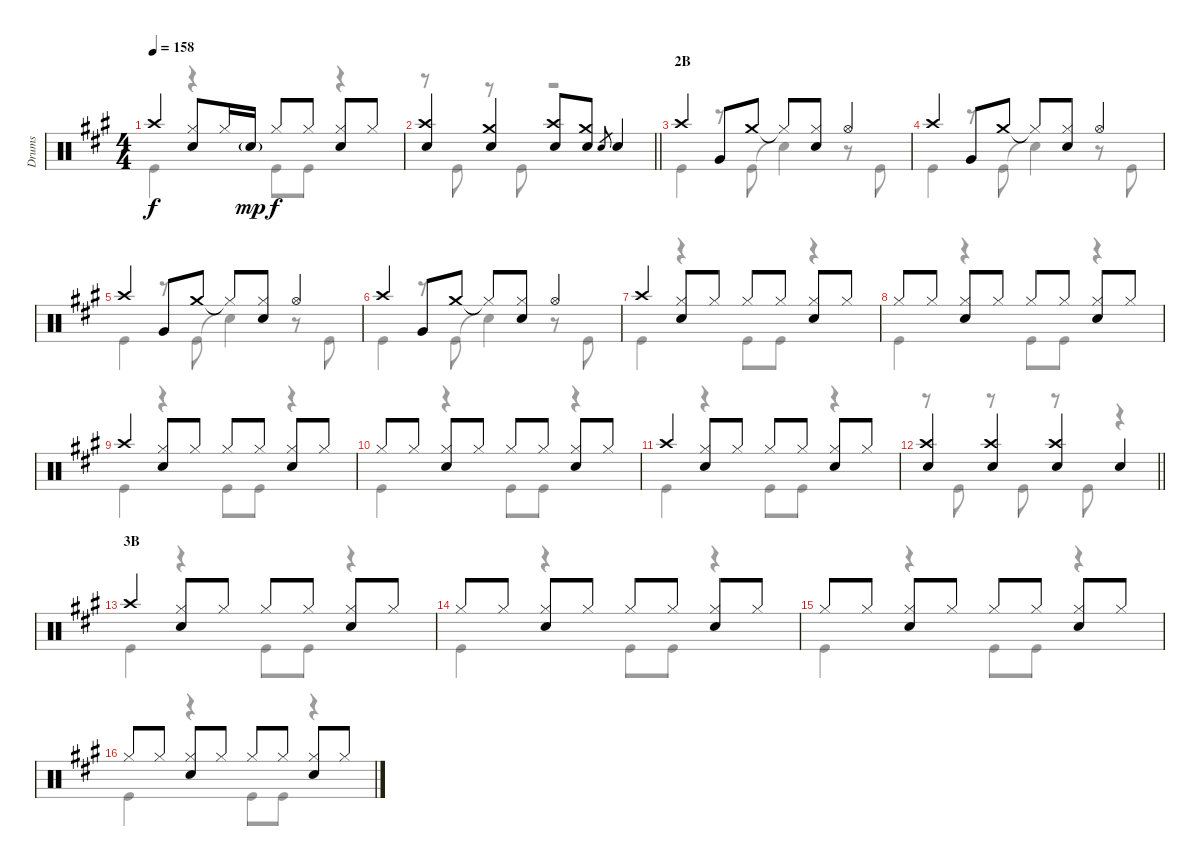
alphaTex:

\track ("Drums" "Drums") {instrument percussion}
\staff {score}
\articulation defaults
\voice
\ts (4 4)
\tempo 158
\clef neutral
\ks a "Crash high (hit)".4{dy f}
("Hi-Hat (closed)" "Snare (hit) 2").8 "Hi-Hat (closed)".16 "Snare (hit) 2"{g}.16{dy mp} "Hi-Hat (closed)".8{dy f} "Hi-Hat (closed)".8 ("Hi-Hat (closed)" "Snare (hit) 2").8 "Hi-Hat (closed)".8 |
\barLineRight lightlight
("Crash high (hit)" "Snare (hit) 2").4 ("Crash medium (hit)" "Snare (hit) 2").4 ("Crash high (hit)" "Snare (hit) 2").8 ("Crash medium (hit)" "Snare (hit) 2").8 "Snare (hit) 2".8{gr} "Snare (hit) 2".4 |
\section ("" "2B")
"Crash high (hit)".4 "Very Low Tom (hit)".8 "Crash medium (hit)".8 "Hi-Hat (closed)"{t}.8 ("Hi-Hat (closed)" "Snare (hit) 2").8 "Hi-Hat (open)".4 |
"Crash high (hit)".4 "Very Low Tom (hit)".8 "Crash medium (hit)".8 "Hi-Hat (closed)"{t}.8 ("Hi-Hat (closed)" "Snare (hit) 2").8 "Hi-Hat (open)".4 |
"Crash high (hit)".4 "Very Low Tom (hit)".8 "Crash medium (hit)".8 "Hi-Hat (closed)"{t}.8 ("Hi-Hat (closed)" "Snare (hit) 2").8 "Hi-Hat (open)".4 |
"Crash high (hit)".4 "Very Low Tom (hit)".8 "Crash medium (hit)".8 "Hi-Hat (closed)"{t}.8 ("Hi-Hat (closed)" "Snare (hit) 2").8 "Hi-Hat (open)".4 |
"Crash high (hit)".4 ("Hi-Hat (closed)" "Snare (hit) 2").8 "Hi-Hat (closed)".8 "Hi-Hat (closed)".8 "Hi-Hat (closed)".8 ("Hi-Hat (closed)" "Snare (hit) 2").8 "Hi-Hat (closed)".8 |
"Hi-Hat (closed)".8 "Hi-Hat (closed)".8 ("Hi-Hat (closed)" "Snare (hit) 2").8 "Hi-Hat (closed)".8 "Hi-Hat (closed)".8 "Hi-Hat (closed)".8 ("Hi-Hat (closed)" "Snare (hit) 2").8 "Hi-Hat (closed)".8 |
"Crash high (hit)".4 ("Hi-Hat (closed)" "Snare (hit) 2").8 "Hi-Hat (closed)".8 "Hi-Hat (closed)".8 "Hi-Hat (closed)".8 ("Hi-Hat (closed)" "Snare (hit) 2").8 "Hi-Hat (closed)".8 |
"Hi-Hat (closed)".8 "Hi-Hat (closed)".8 ("Hi-Hat (closed)" "Snare (hit) 2").8 "Hi-Hat (closed)".8 "Hi-Hat (closed)".8 "Hi-Hat (closed)".8 ("Hi-Hat (closed)" "Snare (hit) 2").8 "Hi-Hat (closed)".8 |
"Crash high (hit)".4 ("Hi-Hat (closed)" "Snare (hit) 2").8 "Hi-Hat (closed)".8 "Hi-Hat (closed)".8 "Hi-Hat (closed)".8 ("Hi-Hat (closed)" "Snare (hit) 2").8 "Hi-Hat (closed)".8 |
\barLineRight lightlight
("Crash high (hit)" "Snare (hit) 2").4 ("Crash high (hit)" "Snare (hit) 2").4 ("Crash high (hit)" "Snare (hit) 2").4 "Snare (hit) 2".4 |
\section ("" "3B")
"Crash high (hit)".4 ("Hi-Hat (closed)" "Snare (hit) 2").8 "Hi-Hat (closed)".8 "Hi-Hat (closed)".8 "Hi-Hat (closed)".8 ("Hi-Hat (closed)" "Snare (hit) 2").8 "Hi-Hat (closed)".8 |
"Hi-Hat (closed)".8 "Hi-Hat (closed)".8 ("Hi-Hat (closed)" "Snare (hit) 2").8 "Hi-Hat (closed)".8 "Hi-Hat (closed)".8 "Hi-Hat (closed)".8 ("Hi-Hat (closed)" "Snare (hit) 2").8 "Hi-Hat (closed)".8 |
"Hi-Hat (closed)".8 "Hi-Hat (closed)".8 ("Hi-Hat (closed)" "Snare (hit) 2").8 "Hi-Hat (closed)".8 "Hi-Hat (closed)".8 "Hi-Hat (closed)".8 ("Hi-Hat (closed)" "Snare (hit) 2").8 "Hi-Hat (closed)".8 |
"Hi-Hat (closed)".8 "Hi-Hat (closed)".8 ("Hi-Hat (closed)" "Snare (hit) 2").8 "Hi-Hat (closed)".8 "Hi-Hat (closed)".8 "Hi-Hat (closed)".8 ("Hi-Hat (closed)" "Snare (hit) 2").8 "Hi-Hat (closed)".8
\voice
\clef neutral
\ottava regular
\simile none
\ks a "Kick (hit)".4{dy f}
r.4 "Kick (hit)".8 "Kick (hit)".8 r.4 |
\barLineRight lightlight
r.8 "Kick (hit)".8 r.8 "Kick (hit)".8 r.2 |
"Kick (hit)".4 r.8 "Kick (hit)".8 "Snare (hit)"{t}.4 r.8 "Kick (hit)".8 |
"Kick (hit)".4 r.8 "Kick (hit)".8 "Snare (hit)"{t}.4 r.8 "Kick (hit)".8 |
"Kick (hit)".4 r.8 "Kick (hit)".8 "Snare (hit)"{t}.4 r.8 "Kick (hit)".8 |
"Kick (hit)".4 r.8 "Kick (hit)".8 "Snare (hit)"{t}.4 r.8 "Kick (hit)".8 |
"Kick (hit)".4 r.4 "Kick (hit)".8 "Kick (hit)".8 r.4 |
"Kick (hit)".4 r.4 "Kick (hit)".8 "Kick (hit)".8 r.4 |
"Kick (hit)".4 r.4 "Kick (hit)".8 "Kick (hit)".8 r.4 |
"Kick (hit)".4 r.4 "Kick (hit)".8 "Kick (hit)".8 r.4 |
"Kick (hit)".4 r.4 "Kick (hit)".8 "Kick (hit)".8 r.4 |
\barLineRight lightlight
r.8 "Kick (hit)".8 r.8 "Kick (hit)".8 r.8 "Kick (hit)".8 r.4 |
"Kick (hit)".4 r.4 "Kick (hit)".8 "Kick (hit)".8 r.4 |
"Kick (hit)".4 r.4 "Kick (hit)".8 "Kick (hit)".8 r.4 |
"Kick (hit)".4 r.4 "Kick (hit)".8 "Kick (hit)".8 r.4 |
"Kick (hit)".4 r.4 "Kick (hit)".8 "Kick (hit)".8 r.4
